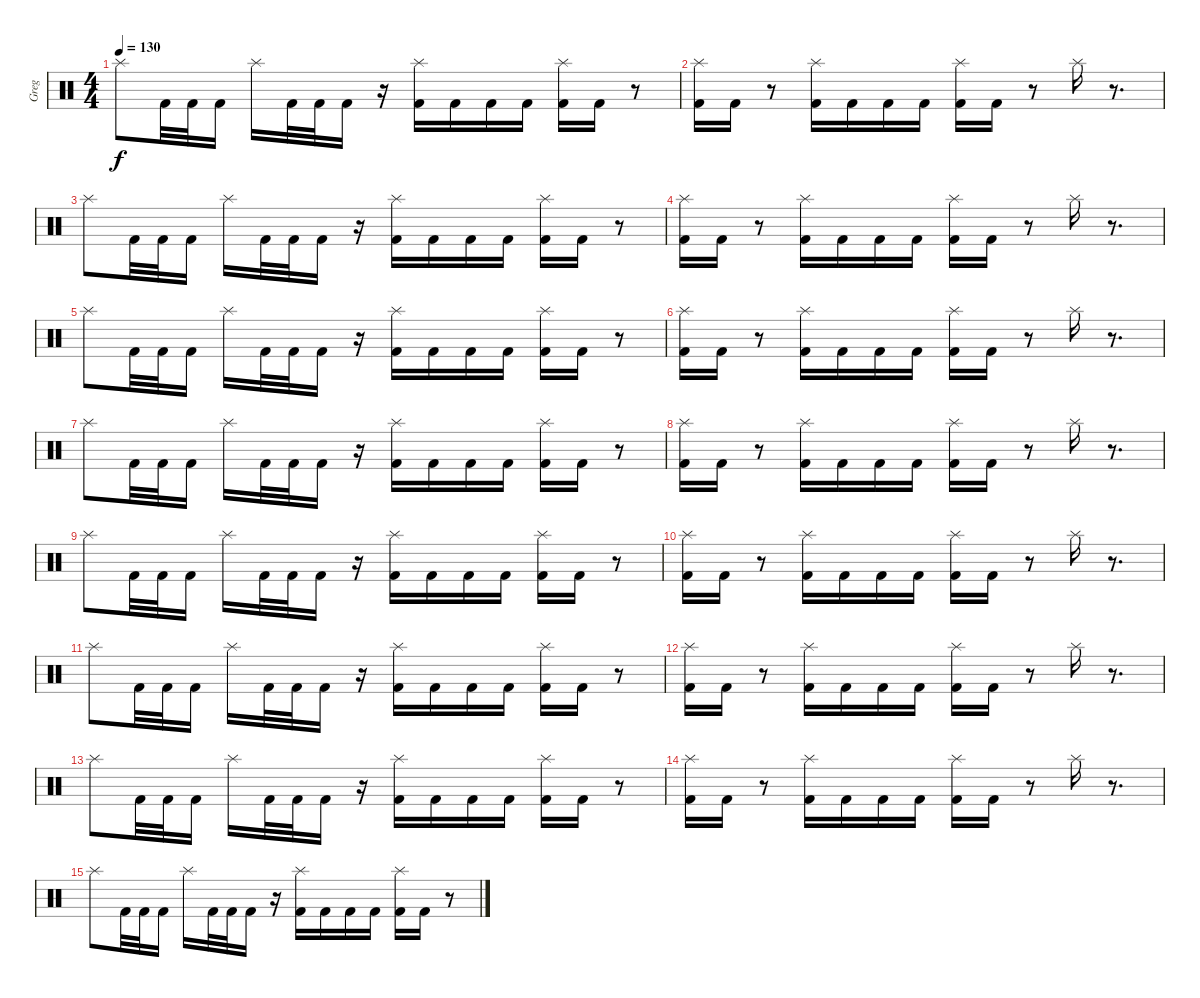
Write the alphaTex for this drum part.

\track ("Greg" "Greg") {instrument percussion}
\staff {score}
\articulation defaults
\ts (4 4)
\tempo 130
\clef neutral
\ks c "Splash (hit)".8{dy f} "Kick (hit) 2".32 "Kick (hit) 2".32 "Kick (hit) 2".16 "Splash (hit)".16 "Kick (hit) 2".32 "Kick (hit) 2".32 "Kick (hit) 2".16
r.16 ("Splash (hit)" "Kick (hit) 2").16 "Kick (hit) 2".16 "Kick (hit) 2".16 "Kick (hit) 2".16 ("Splash (hit)" "Kick (hit) 2").16 "Kick (hit) 2".16 r.8 |
("Splash (hit)" "Kick (hit) 2").16 "Kick (hit) 2".16 r.8 ("Splash (hit)" "Kick (hit) 2").16 "Kick (hit) 2".16 "Kick (hit) 2".16 "Kick (hit) 2".16 ("Splash (hit)" "Kick (hit) 2").16 "Kick (hit) 2".16 r.8 "Splash (hit)".16 r.8{d} |
"Splash (hit)".8 "Kick (hit) 2".32 "Kick (hit) 2".32 "Kick (hit) 2".16 "Splash (hit)".16 "Kick (hit) 2".32 "Kick (hit) 2".32 "Kick (hit) 2".16 r.16 ("Splash (hit)" "Kick (hit) 2").16 "Kick (hit) 2".16 "Kick (hit) 2".16 "Kick (hit) 2".16 ("Splash (hit)" "Kick (hit) 2").16 "Kick (hit) 2".16 r.8 |
("Splash (hit)" "Kick (hit) 2").16 "Kick (hit) 2".16 r.8 ("Splash (hit)" "Kick (hit) 2").16 "Kick (hit) 2".16 "Kick (hit) 2".16 "Kick (hit) 2".16 ("Splash (hit)" "Kick (hit) 2").16 "Kick (hit) 2".16 r.8 "Splash (hit)".16 r.8{d} |
"Splash (hit)".8 "Kick (hit) 2".32 "Kick (hit) 2".32 "Kick (hit) 2".16 "Splash (hit)".16 "Kick (hit) 2".32 "Kick (hit) 2".32 "Kick (hit) 2".16 r.16 ("Splash (hit)" "Kick (hit) 2").16 "Kick (hit) 2".16 "Kick (hit) 2".16 "Kick (hit) 2".16 ("Splash (hit)" "Kick (hit) 2").16 "Kick (hit) 2".16 r.8 |
("Splash (hit)" "Kick (hit) 2").16 "Kick (hit) 2".16 r.8 ("Splash (hit)" "Kick (hit) 2").16 "Kick (hit) 2".16 "Kick (hit) 2".16 "Kick (hit) 2".16 ("Splash (hit)" "Kick (hit) 2").16 "Kick (hit) 2".16 r.8 "Splash (hit)".16 r.8{d} |
"Splash (hit)".8 "Kick (hit) 2".32 "Kick (hit) 2".32 "Kick (hit) 2".16 "Splash (hit)".16 "Kick (hit) 2".32 "Kick (hit) 2".32 "Kick (hit) 2".16 r.16 ("Splash (hit)" "Kick (hit) 2").16 "Kick (hit) 2".16 "Kick (hit) 2".16 "Kick (hit) 2".16 ("Splash (hit)" "Kick (hit) 2").16 "Kick (hit) 2".16 r.8 |
("Splash (hit)" "Kick (hit) 2").16 "Kick (hit) 2".16 r.8 ("Splash (hit)" "Kick (hit) 2").16 "Kick (hit) 2".16 "Kick (hit) 2".16 "Kick (hit) 2".16 ("Splash (hit)" "Kick (hit) 2").16 "Kick (hit) 2".16 r.8 "Splash (hit)".16 r.8{d} |
"Splash (hit)".8 "Kick (hit) 2".32 "Kick (hit) 2".32 "Kick (hit) 2".16 "Splash (hit)".16 "Kick (hit) 2".32 "Kick (hit) 2".32 "Kick (hit) 2".16 r.16 ("Splash (hit)" "Kick (hit) 2").16 "Kick (hit) 2".16 "Kick (hit) 2".16 "Kick (hit) 2".16 ("Splash (hit)" "Kick (hit) 2").16 "Kick (hit) 2".16 r.8 |
("Splash (hit)" "Kick (hit) 2").16 "Kick (hit) 2".16 r.8 ("Splash (hit)" "Kick (hit) 2").16 "Kick (hit) 2".16 "Kick (hit) 2".16 "Kick (hit) 2".16 ("Splash (hit)" "Kick (hit) 2").16 "Kick (hit) 2".16 r.8 "Splash (hit)".16 r.8{d} |
"Splash (hit)".8 "Kick (hit) 2".32 "Kick (hit) 2".32 "Kick (hit) 2".16 "Splash (hit)".16 "Kick (hit) 2".32 "Kick (hit) 2".32 "Kick (hit) 2".16 r.16 ("Splash (hit)" "Kick (hit) 2").16 "Kick (hit) 2".16 "Kick (hit) 2".16 "Kick (hit) 2".16 ("Splash (hit)" "Kick (hit) 2").16 "Kick (hit) 2".16 r.8 |
("Splash (hit)" "Kick (hit) 2").16 "Kick (hit) 2".16 r.8 ("Splash (hit)" "Kick (hit) 2").16 "Kick (hit) 2".16 "Kick (hit) 2".16 "Kick (hit) 2".16 ("Splash (hit)" "Kick (hit) 2").16 "Kick (hit) 2".16 r.8 "Splash (hit)".16 r.8{d} |
"Splash (hit)".8 "Kick (hit) 2".32 "Kick (hit) 2".32 "Kick (hit) 2".16 "Splash (hit)".16 "Kick (hit) 2".32 "Kick (hit) 2".32 "Kick (hit) 2".16 r.16 ("Splash (hit)" "Kick (hit) 2").16 "Kick (hit) 2".16 "Kick (hit) 2".16 "Kick (hit) 2".16 ("Splash (hit)" "Kick (hit) 2").16 "Kick (hit) 2".16 r.8 |
("Splash (hit)" "Kick (hit) 2").16 "Kick (hit) 2".16 r.8 ("Splash (hit)" "Kick (hit) 2").16 "Kick (hit) 2".16 "Kick (hit) 2".16 "Kick (hit) 2".16 ("Splash (hit)" "Kick (hit) 2").16 "Kick (hit) 2".16 r.8 "Splash (hit)".16 r.8{d} |
"Splash (hit)".8 "Kick (hit) 2".32 "Kick (hit) 2".32 "Kick (hit) 2".16 "Splash (hit)".16 "Kick (hit) 2".32 "Kick (hit) 2".32 "Kick (hit) 2".16 r.16 ("Splash (hit)" "Kick (hit) 2").16 "Kick (hit) 2".16 "Kick (hit) 2".16 "Kick (hit) 2".16 ("Splash (hit)" "Kick (hit) 2").16 "Kick (hit) 2".16 r.8
